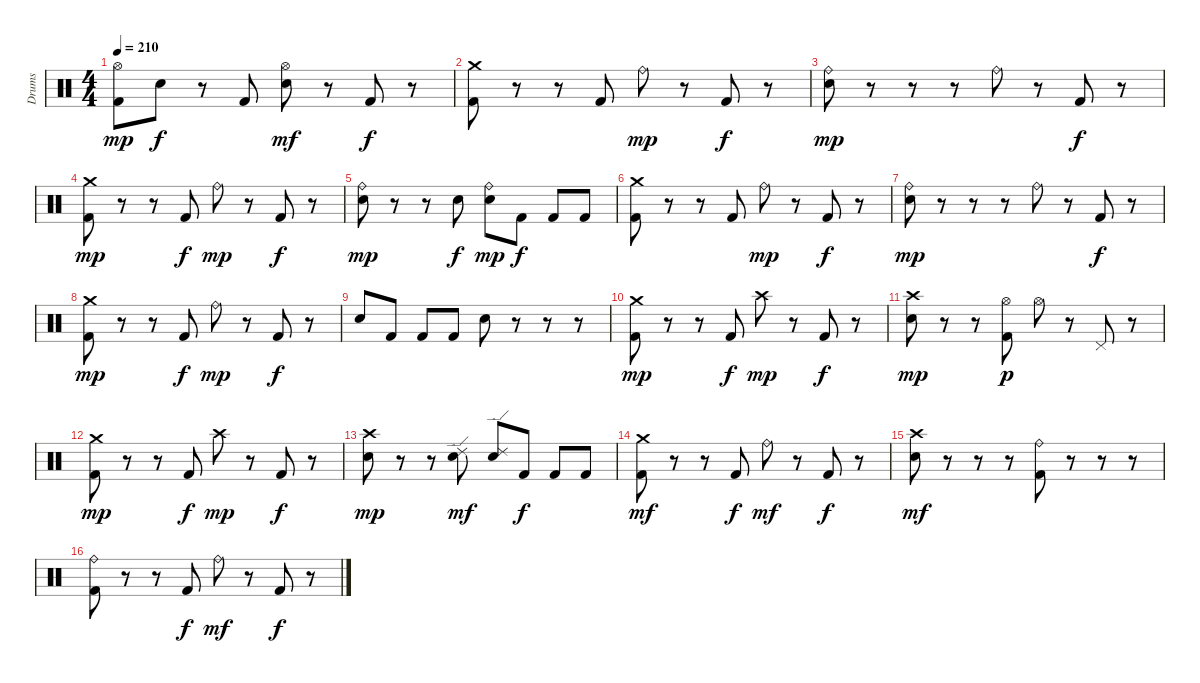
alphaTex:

\track ("Drums" "Drums") {instrument percussion}
\staff {score}
\articulation defaults
\ts (4 4)
\tempo 210
\clef neutral
\ks c
("Kick (hit) 2" "Hi-Hat (open)").8{dy mp} "Snare (hit) 2".8{dy f} r.8 "Kick (hit) 2".8 ("Snare (hit) 2" "Hi-Hat (open)").8{dy mf} r.8 "Kick (hit) 2".8{dy f} r.8 |
("Kick (hit) 2" "Crash medium (hit)").8 r.8 r.8 "Kick (hit) 2".8 "Ride (bell)".8{dy mp} r.8 "Kick (hit) 2".8{dy f} r.8 |
("Snare (hit) 2" "Ride (bell)").8{dy mp} r.8 r.8 r.8 "Ride (bell)".8 r.8 "Kick (hit) 2".8{dy f} r.8 |
("Kick (hit) 2" "Crash medium (hit)").8{dy mp} r.8 r.8 "Kick (hit) 2".8{dy f} "Ride (bell)".8{dy mp} r.8 "Kick (hit) 2".8{dy f} r.8 |
("Snare (hit) 2" "Ride (bell)").8{dy mp} r.8 r.8 "Snare (hit) 2".8{dy f} ("Snare (hit) 2" "Ride (bell)").8{dy mp} "Kick (hit) 2".8{dy f} "Kick (hit) 2".8 "Kick (hit) 2".8 |
("Kick (hit) 2" "Crash medium (hit)").8 r.8 r.8 "Kick (hit) 2".8 "Ride (bell)".8{dy mp} r.8 "Kick (hit) 2".8{dy f} r.8 |
("Snare (hit) 2" "Ride (bell)").8{dy mp} r.8 r.8 r.8 "Ride (bell)".8 r.8 "Kick (hit) 2".8{dy f} r.8 |
("Kick (hit) 2" "Crash medium (hit)").8{dy mp} r.8 r.8 "Kick (hit) 2".8{dy f} "Ride (bell)".8{dy mp} r.8 "Kick (hit) 2".8{dy f} r.8 |
"Snare (hit) 2".8 "Kick (hit) 2".8 "Kick (hit) 2".8 "Kick (hit) 2".8 "Snare (hit) 2".8 r.8 r.8 r.8 |
("Kick (hit) 2" "Crash medium (hit)").8{dy mp} r.8 r.8 "Kick (hit) 2".8{dy f} "Crash high (hit)".8{dy mp} r.8 "Kick (hit) 2".8{dy f} r.8 |
("Snare (hit) 2" "Crash high (hit)").8{dy mp} r.8 r.8 ("Kick (hit) 2" "Hi-Hat (open)").8{dy p} "Hi-Hat (open)".8 r.8 "Pedal Hi-Hat (hit)".8 r.8 |
("Kick (hit) 2" "Crash medium (hit)").8{dy mp} r.8 r.8 "Kick (hit) 2".8{dy f} "Crash high (hit)".8{dy mp} r.8 "Kick (hit) 2".8{dy f} r.8 |
("Snare (hit) 2" "Crash high (hit)").8{dy mp} r.8 r.8 ("Snare (hit) 2" "Ride (edge) 2").8{dy mf} ("Snare (hit) 2" "Ride (edge) 2").8 "Kick (hit) 2".8{dy f} "Kick (hit) 2".8 "Kick (hit) 2".8 |
("Kick (hit) 2" "Crash medium (hit)").8{dy mf} r.8 r.8 "Kick (hit) 2".8{dy f} "Ride (bell)".8{dy mf} r.8 "Kick (hit) 2".8{dy f} r.8 |
("Snare (hit) 2" "Crash high (hit)").8{dy mf} r.8 r.8 r.8 ("Kick (hit) 2" "Ride (bell)").8 r.8 r.8 r.8 |
("Kick (hit) 2" "Ride (bell)").8 r.8 r.8 "Kick (hit) 2".8{dy f} "Ride (bell)".8{dy mf} r.8 "Kick (hit) 2".8{dy f} r.8
